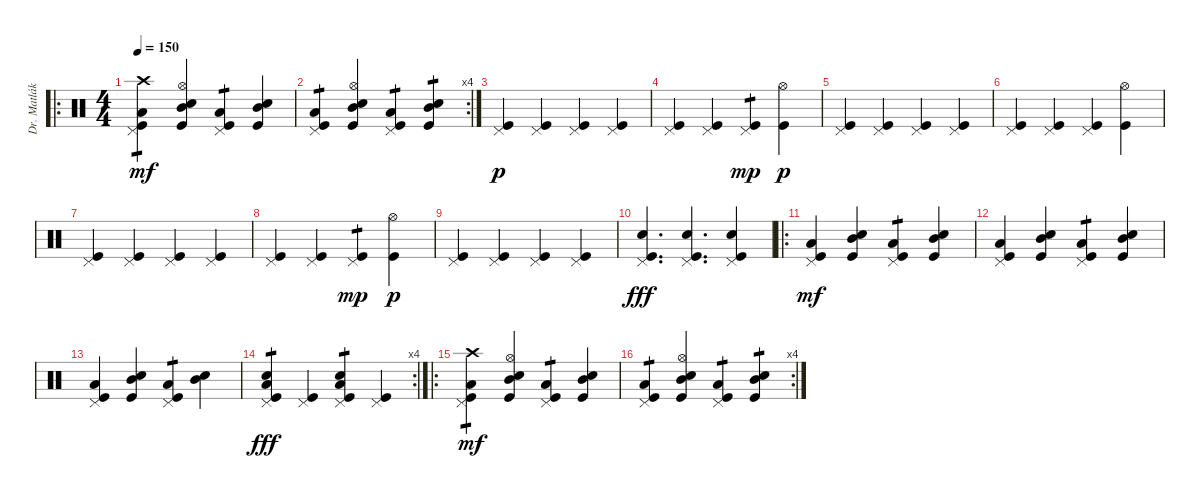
\track ("Dr. Matlák" "Dr. Matlák") {instrument percussion}
\staff {score}
\articulation defaults
\ro
\ts (4 4)
\tempo 150
\clef neutral
\ks c
("Crash high (hit)" "Pedal Hi-Hat (hit)" "Low Tom (hit)" "Kick (hit)").4{tp 1 dy mf} ("Hi-Hat (open)" "Electric Snare (hit)" "Mid Tom (hit)" "Kick (hit)").4 ("Pedal Hi-Hat (hit)" "Low Tom (hit)" "Kick (hit)").4{tp 1} ("Electric Snare (hit)" "Mid Tom (hit)" "Kick (hit)").4 |
\rc 4
("Pedal Hi-Hat (hit)" "Low Tom (hit)" "Kick (hit)").4{tp 1} ("Hi-Hat (open)" "Electric Snare (hit)" "Mid Tom (hit)" "Kick (hit)").4 ("Pedal Hi-Hat (hit)" "Low Tom (hit)" "Kick (hit)").4{tp 1} ("Electric Snare (hit)" "Mid Tom (hit)" "Kick (hit)").4{tp 1} |
("Pedal Hi-Hat (hit)" "Kick (hit)").4{dy p} ("Pedal Hi-Hat (hit)" "Kick (hit)").4 ("Pedal Hi-Hat (hit)" "Kick (hit)").4 ("Pedal Hi-Hat (hit)" "Kick (hit)").4 |
("Pedal Hi-Hat (hit)" "Kick (hit)").4 ("Pedal Hi-Hat (hit)" "Kick (hit)").4 ("Pedal Hi-Hat (hit)" "Kick (hit)").4{tp 1 dy mp} ("Hi-Hat (open)" "Kick (hit)").4{dy p} |
("Pedal Hi-Hat (hit)" "Kick (hit)").4 ("Pedal Hi-Hat (hit)" "Kick (hit)").4 ("Pedal Hi-Hat (hit)" "Kick (hit)").4 ("Pedal Hi-Hat (hit)" "Kick (hit)").4 |
("Pedal Hi-Hat (hit)" "Kick (hit)").4 ("Pedal Hi-Hat (hit)" "Kick (hit)").4 ("Pedal Hi-Hat (hit)" "Kick (hit)").4 ("Hi-Hat (open)" "Kick (hit)").4 |
("Pedal Hi-Hat (hit)" "Kick (hit)").4 ("Pedal Hi-Hat (hit)" "Kick (hit)").4 ("Pedal Hi-Hat (hit)" "Kick (hit)").4 ("Pedal Hi-Hat (hit)" "Kick (hit)").4 |
("Pedal Hi-Hat (hit)" "Kick (hit)").4 ("Pedal Hi-Hat (hit)" "Kick (hit)").4 ("Pedal Hi-Hat (hit)" "Kick (hit)").4{tp 1 dy mp} ("Hi-Hat (open)" "Kick (hit)").4{dy p} |
("Pedal Hi-Hat (hit)" "Kick (hit)").4 ("Pedal Hi-Hat (hit)" "Kick (hit)").4 ("Pedal Hi-Hat (hit)" "Kick (hit)").4 ("Pedal Hi-Hat (hit)" "Kick (hit)").4 |
("Electric Snare (hit)" "Pedal Hi-Hat (hit)" "Kick (hit)").4{d dy fff} ("Electric Snare (hit)" "Pedal Hi-Hat (hit)" "Kick (hit)").4{d} ("Electric Snare (hit)" "Pedal Hi-Hat (hit)" "Kick (hit)").4 |
\ro
("Pedal Hi-Hat (hit)" "Low Tom (hit)" "Kick (hit)").4{dy mf} ("Electric Snare (hit)" "Mid Tom (hit)" "Kick (hit)").4 ("Pedal Hi-Hat (hit)" "Low Tom (hit)" "Kick (hit)").4{tp 1} ("Electric Snare (hit)" "Mid Tom (hit)" "Kick (hit)").4 |
("Pedal Hi-Hat (hit)" "Low Tom (hit)" "Kick (hit)").4 ("Electric Snare (hit)" "Mid Tom (hit)" "Kick (hit)").4 ("Pedal Hi-Hat (hit)" "Low Tom (hit)" "Kick (hit)").4{tp 1} ("Electric Snare (hit)" "Mid Tom (hit)" "Kick (hit)").4 |
("Pedal Hi-Hat (hit)" "Low Tom (hit)" "Kick (hit)").4 ("Electric Snare (hit)" "Mid Tom (hit)" "Kick (hit)").4 ("Pedal Hi-Hat (hit)" "Low Tom (hit)" "Kick (hit)").4{tp 1} ("Electric Snare (hit)" "Mid Tom (hit)").4 |
\rc 4
("Electric Snare (hit)" "Pedal Hi-Hat (hit)" "Low Tom (hit)" "Kick (hit)").4{tp 1 dy fff} ("Pedal Hi-Hat (hit)" "Kick (hit)").4 ("Electric Snare (hit)" "Pedal Hi-Hat (hit)" "Low Tom (hit)" "Kick (hit)").4{tp 1} ("Pedal Hi-Hat (hit)" "Kick (hit)").4 |
\ro
("Crash high (hit)" "Pedal Hi-Hat (hit)" "Low Tom (hit)" "Kick (hit)").4{tp 1 dy mf} ("Hi-Hat (open)" "Electric Snare (hit)" "Mid Tom (hit)" "Kick (hit)").4 ("Pedal Hi-Hat (hit)" "Low Tom (hit)" "Kick (hit)").4{tp 1} ("Electric Snare (hit)" "Mid Tom (hit)" "Kick (hit)").4 |
\rc 4
("Pedal Hi-Hat (hit)" "Low Tom (hit)" "Kick (hit)").4{tp 1} ("Hi-Hat (open)" "Electric Snare (hit)" "Mid Tom (hit)" "Kick (hit)").4 ("Pedal Hi-Hat (hit)" "Low Tom (hit)" "Kick (hit)").4{tp 1} ("Electric Snare (hit)" "Mid Tom (hit)" "Kick (hit)").4{tp 1}
